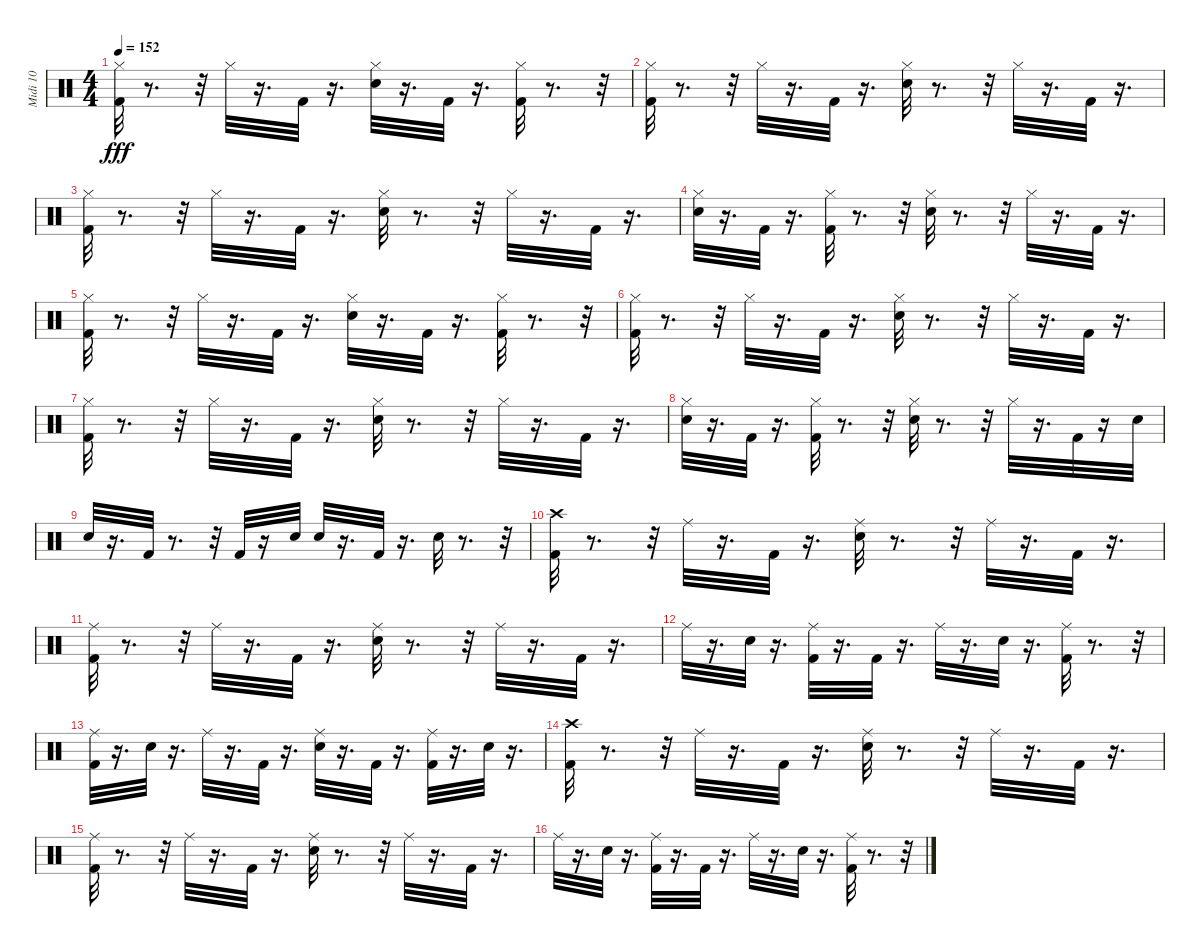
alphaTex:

\track ("Midi 10" "Midi 10") {instrument percussion}
\staff {score}
\articulation defaults
\ts (4 4)
\tempo 152
\clef neutral
\ks c
("Kick (hit) 2" "Hi-Hat (closed)").32{dy fff} r.8{d} r.32 "Hi-Hat (closed)".32 r.16{d} "Kick (hit) 2".32 r.16{d} ("Electric Snare (hit)" "Hi-Hat (closed)").32 r.16{d} "Kick (hit) 2".32 r.16{d} ("Kick (hit) 2" "Hi-Hat (closed)").32 r.8{d} r.32 |
("Kick (hit) 2" "Hi-Hat (closed)").32 r.8{d} r.32 "Hi-Hat (closed)".32 r.16{d} "Kick (hit) 2".32 r.16{d} ("Electric Snare (hit)" "Hi-Hat (closed)").32 r.8{d} r.32 "Hi-Hat (closed)".32 r.16{d} "Kick (hit) 2".32 r.16{d} |
("Kick (hit) 2" "Hi-Hat (closed)").32 r.8{d} r.32 "Hi-Hat (closed)".32 r.16{d} "Kick (hit) 2".32 r.16{d} ("Electric Snare (hit)" "Hi-Hat (closed)").32 r.8{d} r.32 "Hi-Hat (closed)".32 r.16{d} "Kick (hit) 2".32 r.16{d} |
("Electric Snare (hit)" "Hi-Hat (closed)").32 r.16{d} "Kick (hit) 2".32 r.16{d} ("Kick (hit) 2" "Hi-Hat (closed)").32 r.8{d} r.32 ("Electric Snare (hit)" "Hi-Hat (closed)").32 r.8{d} r.32 "Hi-Hat (closed)".32 r.16{d} "Kick (hit) 2".32 r.16{d} |
("Kick (hit) 2" "Hi-Hat (closed)").32 r.8{d} r.32 "Hi-Hat (closed)".32 r.16{d} "Kick (hit) 2".32 r.16{d} ("Electric Snare (hit)" "Hi-Hat (closed)").32 r.16{d} "Kick (hit) 2".32 r.16{d} ("Kick (hit) 2" "Hi-Hat (closed)").32 r.8{d} r.32 |
("Kick (hit) 2" "Hi-Hat (closed)").32 r.8{d} r.32 "Hi-Hat (closed)".32 r.16{d} "Kick (hit) 2".32 r.16{d} ("Electric Snare (hit)" "Hi-Hat (closed)").32 r.8{d} r.32 "Hi-Hat (closed)".32 r.16{d} "Kick (hit) 2".32 r.16{d} |
("Kick (hit) 2" "Hi-Hat (closed)").32 r.8{d} r.32 "Hi-Hat (closed)".32 r.16{d} "Kick (hit) 2".32 r.16{d} ("Electric Snare (hit)" "Hi-Hat (closed)").32 r.8{d} r.32 "Hi-Hat (closed)".32 r.16{d} "Kick (hit) 2".32 r.16{d} |
("Electric Snare (hit)" "Hi-Hat (closed)").32 r.16{d} "Kick (hit) 2".32 r.16{d} ("Kick (hit) 2" "Hi-Hat (closed)").32 r.8{d} r.32 ("Electric Snare (hit)" "Hi-Hat (closed)").32 r.8{d} r.32 "Hi-Hat (closed)".32 r.16{d} "Kick (hit) 2".32 r.16 "Electric Snare (hit)".32 |
"Electric Snare (hit)".32 r.16{d} "Kick (hit) 2".32 r.8{d} r.32 "Kick (hit) 2".32 r.16 "Electric Snare (hit)".32 "Electric Snare (hit)".32 r.16{d} "Kick (hit) 2".32 r.16{d} "Electric Snare (hit)".32 r.8{d} r.32 |
("Crash high (hit)" "Kick (hit) 2").32 r.8{d} r.32 "Ride (middle)".32 r.16{d} "Kick (hit) 2".32 r.16{d} ("Electric Snare (hit)" "Ride (middle)").32 r.8{d} r.32 "Ride (middle)".32 r.16{d} "Kick (hit) 2".32 r.16{d} |
("Ride (middle)" "Kick (hit) 2").32 r.8{d} r.32 "Ride (middle)".32 r.16{d} "Kick (hit) 2".32 r.16{d} ("Ride (middle)" "Electric Snare (hit)").32 r.8{d} r.32 "Ride (middle)".32 r.16{d} "Kick (hit) 2".32 r.16{d} |
"Ride (middle)".32 r.16{d} "Electric Snare (hit)".32 r.16{d} ("Ride (middle)" "Kick (hit) 2").32 r.16{d} "Kick (hit) 2".32 r.16{d} "Ride (middle)".32 r.16{d} "Electric Snare (hit)".32 r.16{d} ("Ride (middle)" "Kick (hit) 2").32 r.8{d} r.32 |
("Ride (middle)" "Kick (hit) 2").32 r.16{d} "Electric Snare (hit)".32 r.16{d} "Ride (middle)".32 r.16{d} "Kick (hit) 2".32 r.16{d} ("Ride (middle)" "Electric Snare (hit)").32 r.16{d} "Kick (hit) 2".32 r.16{d} ("Ride (middle)" "Kick (hit) 2").32 r.16{d} "Electric Snare (hit)".32 r.16{d} |
("Kick (hit) 2" "Crash high (hit)").32 r.8{d} r.32 "Ride (middle)".32 r.16{d} "Kick (hit) 2".32 r.16{d} ("Ride (middle)" "Electric Snare (hit)").32 r.8{d} r.32 "Ride (middle)".32 r.16{d} "Kick (hit) 2".32 r.16{d} |
("Kick (hit) 2" "Ride (middle)").32 r.8{d} r.32 "Ride (middle)".32 r.16{d} "Kick (hit) 2".32 r.16{d} ("Electric Snare (hit)" "Ride (middle)").32 r.8{d} r.32 "Ride (middle)".32 r.16{d} "Kick (hit) 2".32 r.16{d} |
"Ride (middle)".32 r.16{d} "Electric Snare (hit)".32 r.16{d} ("Kick (hit) 2" "Ride (middle)").32 r.16{d} "Kick (hit) 2".32 r.16{d} "Ride (middle)".32 r.16{d} "Electric Snare (hit)".32 r.16{d} ("Kick (hit) 2" "Ride (middle)").32 r.8{d} r.32
